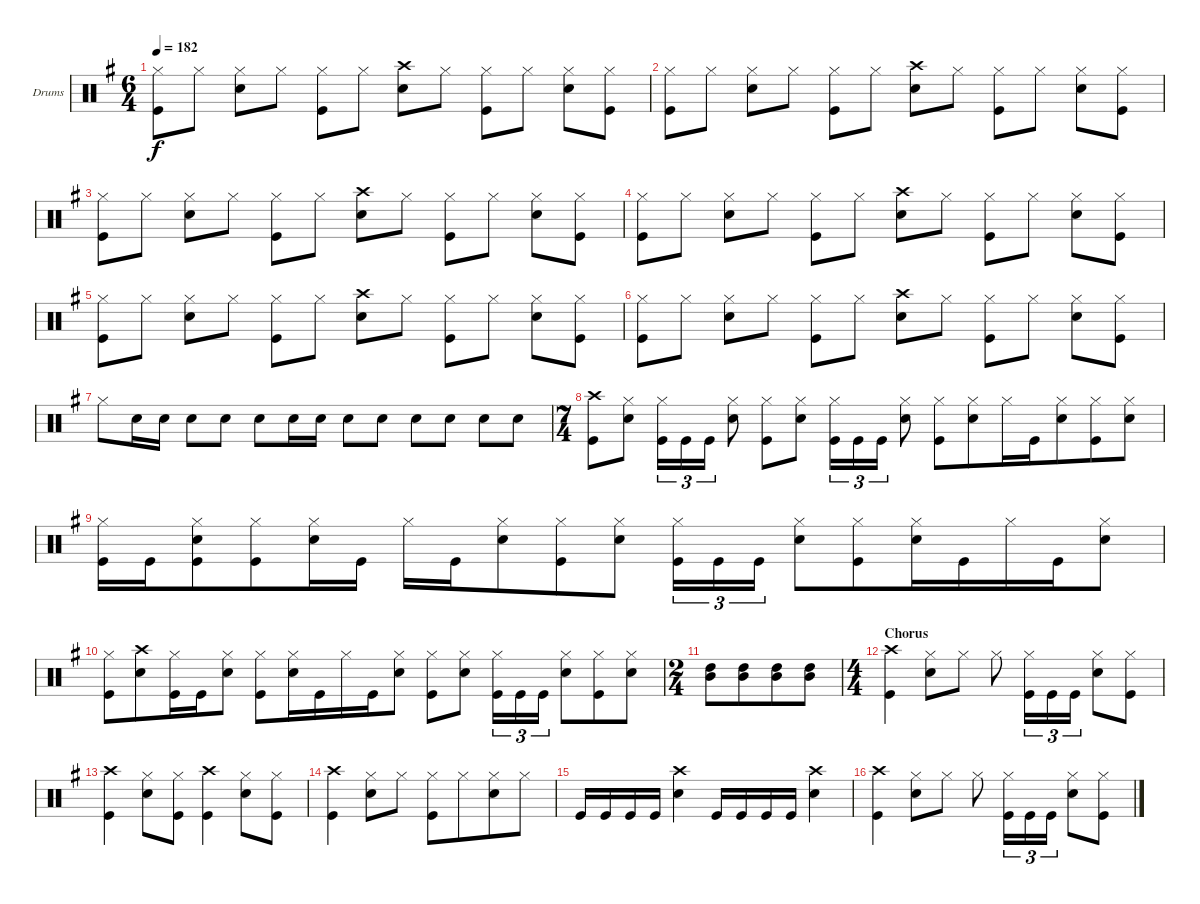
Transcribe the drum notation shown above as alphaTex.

\bracketExtendMode groupsimilarinstruments
\firstSystemTrackNameOrientation horizontal
\otherSystemsTrackNameOrientation horizontal
\track ("Drumkit" "Drums") {instrument percussion}
\staff {score}
\articulation defaults
\ts (6 4)
\tempo 182
\clef neutral
\scale
1.04288
\ks g
("Hi-Hat (closed)" "Kick (hit)").8{dy f} "Hi-Hat (closed)".8 ("Snare (hit) 2" "Hi-Hat (closed)").8 "Hi-Hat (closed)".8 ("Hi-Hat (closed)" "Kick (hit)").8 "Hi-Hat (closed)".8 ("Crash high (hit)" "Snare (hit) 2").8 "Hi-Hat (closed)".8 ("Hi-Hat (closed)" "Kick (hit)").8 "Hi-Hat (closed)".8 ("Snare (hit) 2" "Hi-Hat (closed)").8 ("Kick (hit)" "Hi-Hat (closed)").8 |
\scale
0.957125 ("Hi-Hat (closed)" "Kick (hit)").8 "Hi-Hat (closed)".8 ("Snare (hit) 2" "Hi-Hat (closed)").8 "Hi-Hat (closed)".8 ("Hi-Hat (closed)" "Kick (hit)").8 "Hi-Hat (closed)".8 ("Crash high (hit)" "Snare (hit) 2").8 "Hi-Hat (closed)".8 ("Hi-Hat (closed)" "Kick (hit)").8 "Hi-Hat (closed)".8 ("Snare (hit) 2" "Hi-Hat (closed)").8 ("Kick (hit)" "Hi-Hat (closed)").8 |
\scale
1.04288 ("Hi-Hat (closed)" "Kick (hit)").8 "Hi-Hat (closed)".8 ("Snare (hit) 2" "Hi-Hat (closed)").8 "Hi-Hat (closed)".8 ("Hi-Hat (closed)" "Kick (hit)").8 "Hi-Hat (closed)".8 ("Crash high (hit)" "Snare (hit) 2").8 "Hi-Hat (closed)".8 ("Hi-Hat (closed)" "Kick (hit)").8 "Hi-Hat (closed)".8 ("Snare (hit) 2" "Hi-Hat (closed)").8 ("Kick (hit)" "Hi-Hat (closed)").8 |
\scale
0.957125 ("Hi-Hat (closed)" "Kick (hit)").8 "Hi-Hat (closed)".8 ("Snare (hit) 2" "Hi-Hat (closed)").8 "Hi-Hat (closed)".8 ("Hi-Hat (closed)" "Kick (hit)").8 "Hi-Hat (closed)".8 ("Crash high (hit)" "Snare (hit) 2").8 "Hi-Hat (closed)".8 ("Hi-Hat (closed)" "Kick (hit)").8 "Hi-Hat (closed)".8 ("Snare (hit) 2" "Hi-Hat (closed)").8 ("Kick (hit)" "Hi-Hat (closed)").8 |
\scale
1.04288 ("Hi-Hat (closed)" "Kick (hit)").8 "Hi-Hat (closed)".8 ("Snare (hit) 2" "Hi-Hat (closed)").8 "Hi-Hat (closed)".8 ("Hi-Hat (closed)" "Kick (hit)").8 "Hi-Hat (closed)".8 ("Crash high (hit)" "Snare (hit) 2").8 "Hi-Hat (closed)".8 ("Hi-Hat (closed)" "Kick (hit)").8 "Hi-Hat (closed)".8 ("Snare (hit) 2" "Hi-Hat (closed)").8 ("Kick (hit)" "Hi-Hat (closed)").8 |
\scale
0.957125 ("Hi-Hat (closed)" "Kick (hit)").8 "Hi-Hat (closed)".8 ("Snare (hit) 2" "Hi-Hat (closed)").8 "Hi-Hat (closed)".8 ("Hi-Hat (closed)" "Kick (hit)").8 "Hi-Hat (closed)".8 ("Crash high (hit)" "Snare (hit) 2").8 "Hi-Hat (closed)".8 ("Hi-Hat (closed)" "Kick (hit)").8 "Hi-Hat (closed)".8 ("Snare (hit) 2" "Hi-Hat (closed)").8 ("Kick (hit)" "Hi-Hat (closed)").8 |
\scale
1.04288 "Hi-Hat (closed)".8 "Snare (hit) 2".16 "Snare (hit) 2".16 "Snare (hit) 2".8 "Snare (hit) 2".8 "Snare (hit) 2".8 "Snare (hit) 2".16 "Snare (hit) 2".16 "Snare (hit) 2".8 "Snare (hit) 2".8 "Snare (hit) 2".8 "Snare (hit) 2".8 "Snare (hit) 2".8 "Snare (hit) 2".8 |
\ts (7 4)
\beaming (8 4 4 6)
\scale
0.957125 ("Crash high (hit)" "Kick (hit)").8 ("Snare (hit) 2" "Hi-Hat (closed)").8 ("Hi-Hat (closed)" "Kick (hit)").16{tu (3 2)} "Kick (hit)".16{tu (3 2)} "Kick (hit)".16{tu (3 2)} ("Snare (hit) 2" "Hi-Hat (closed)").8 ("Hi-Hat (closed)" "Kick (hit)").8 ("Snare (hit) 2" "Hi-Hat (closed)").8 ("Hi-Hat (closed)" "Kick (hit)").16{tu (3 2)} "Kick (hit)".16{tu (3 2)} "Kick (hit)".16{tu (3 2)} ("Snare (hit) 2" "Hi-Hat (closed)").8 ("Hi-Hat (closed)" "Kick (hit)").8 ("Snare (hit) 2" "Hi-Hat (closed)").8 "Hi-Hat (closed)".16 "Kick (hit)".16 ("Snare (hit) 2" "Hi-Hat (closed)").8 ("Hi-Hat (closed)" "Kick (hit)").8 ("Snare (hit) 2" "Hi-Hat (closed)").8 |
\scale
1.04288 ("Hi-Hat (closed)" "Kick (hit)").16 "Kick (hit)".16 ("Snare (hit) 2" "Hi-Hat (closed)" "Kick (hit)").8 ("Hi-Hat (closed)" "Kick (hit)").8 ("Snare (hit) 2" "Hi-Hat (closed)").16 "Kick (hit)".16 "Hi-Hat (closed)".16 "Kick (hit)".16 ("Snare (hit) 2" "Hi-Hat (closed)").8 ("Hi-Hat (closed)" "Kick (hit)").8 ("Snare (hit) 2" "Hi-Hat (closed)").8 ("Hi-Hat (closed)" "Kick (hit)").16{tu (3 2)} "Kick (hit)".16{tu (3 2)} "Kick (hit)".16{tu (3 2)} ("Snare (hit) 2" "Hi-Hat (closed)").8 ("Hi-Hat (closed)" "Kick (hit)").8 ("Snare (hit) 2" "Hi-Hat (closed)").16 "Kick (hit)".16 "Hi-Hat (closed)".16 "Kick (hit)".16 ("Snare (hit) 2" "Hi-Hat (closed)").8 |
\scale
0.957125 ("Kick (hit)" "Hi-Hat (closed)").8 ("Snare (hit) 2" "Crash high (hit)").8 ("Hi-Hat (closed)" "Kick (hit)").16 "Kick (hit)".16 ("Snare (hit) 2" "Hi-Hat (closed)").8 ("Hi-Hat (closed)" "Kick (hit)").8 ("Snare (hit) 2" "Hi-Hat (closed)").16 "Kick (hit)".16 "Hi-Hat (closed)".16 "Kick (hit)".16 ("Snare (hit) 2" "Hi-Hat (closed)").8 ("Hi-Hat (closed)" "Kick (hit)").8 ("Snare (hit) 2" "Hi-Hat (closed)").8 ("Hi-Hat (closed)" "Kick (hit)").16{tu (3 2)} "Kick (hit)".16{tu (3 2)} "Kick (hit)".16{tu (3 2)} ("Snare (hit) 2" "Hi-Hat (closed)").8 ("Hi-Hat (closed)" "Kick (hit)").8 ("Snare (hit) 2" "Hi-Hat (closed)").8 |
\ts (2 4)
\beaming (8 4 4 6)
\scale
1.07314 ("High Tom (hit)" "Mid Tom (hit)").8 ("Mid Tom (hit)" "High Tom (hit)").8 ("High Tom (hit)" "Mid Tom (hit)").8 ("Mid Tom (hit)" "High Tom (hit)").8 |
\ts (4 4)
\beaming (8 4 4 6)
\section ("" "Chorus")
\scale
0.92686 ("Kick (hit)" "Crash high (hit)").4 ("Hi-Hat (closed)" "Snare (hit) 2").8 "Hi-Hat (closed)".8 "Hi-Hat (closed)".8 ("Hi-Hat (closed)" "Kick (hit)").16{tu (3 2)} "Kick (hit)".16{tu (3 2)} "Kick (hit)".16{tu (3 2)} ("Snare (hit) 2" "Hi-Hat (closed)").8 ("Hi-Hat (closed)" "Kick (hit)").8 |
\scale
1.04288 ("Kick (hit)" "Crash high (hit)").4 ("Hi-Hat (closed)" "Snare (hit) 2").8 ("Kick (hit)" "Hi-Hat (closed)").8 ("Crash high (hit)" "Kick (hit)").4 ("Hi-Hat (closed)" "Snare (hit) 2").8 ("Kick (hit)" "Hi-Hat (closed)").8 |
\scale
0.957125 ("Kick (hit)" "Crash high (hit)").4 ("Hi-Hat (closed)" "Snare (hit) 2").8 "Hi-Hat (closed)".8 ("Hi-Hat (closed)" "Kick (hit)").8 "Hi-Hat (closed)".8 ("Snare (hit) 2" "Hi-Hat (closed)").8 "Hi-Hat (closed)".8 |
\scale
1.04288 "Kick (hit)".16 "Kick (hit)".16 "Kick (hit)".16 "Kick (hit)".16 ("Crash high (hit)" "Snare (hit) 2").4 "Kick (hit)".16 "Kick (hit)".16 "Kick (hit)".16 "Kick (hit)".16 ("Snare (hit) 2" "Crash high (hit)").4 |
\scale
0.957125 ("Kick (hit)" "Crash high (hit)").4 ("Snare (hit) 2" "Hi-Hat (closed)").8 "Hi-Hat (closed)".8 "Hi-Hat (closed)".8 ("Kick (hit)" "Hi-Hat (closed)").16{tu (3 2)} "Kick (hit)".16{tu (3 2)} "Kick (hit)".16{tu (3 2)} ("Snare (hit) 2" "Hi-Hat (closed)").8 ("Kick (hit)" "Hi-Hat (closed)").8
